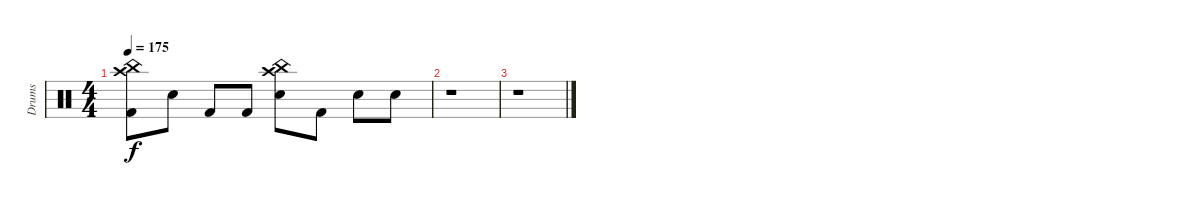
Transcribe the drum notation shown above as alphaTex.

\track ("Drums" "Drums") {instrument percussion}
\staff {score}
\articulation defaults
\ts (4 4)
\tempo 175
\clef neutral
\ks c
("Crash high (hit)" "China (hit)" "Kick (hit) 2").8{dy f} "Snare (hit) 2".8 "Kick (hit) 2".8 "Kick (hit) 2".8 ("Crash high (hit)" "China (hit)" "Snare (hit) 2").8 "Kick (hit) 2".8 "Snare (hit) 2".8 "Snare (hit) 2".8 |
r.1 |
r.1
